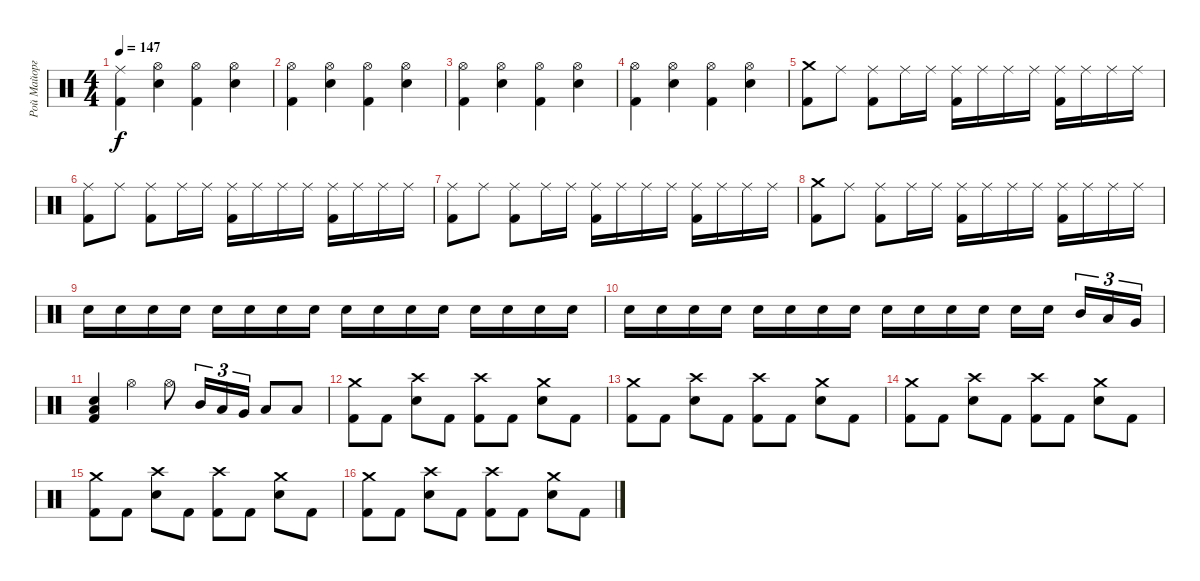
\track ("Рой Майорга" "Рой Майорг") {instrument percussion}
\staff {score}
\articulation defaults
\ts (4 4)
\tempo 147
\clef neutral
\ks c
("Ride (middle)" "Kick (hit) 2").4{dy f} ("Hi-Hat (open)" "Electric Snare (hit)").4 ("Hi-Hat (open)" "Kick (hit) 2").4 ("Hi-Hat (open)" "Electric Snare (hit)").4 |
("Hi-Hat (open)" "Kick (hit) 2").4 ("Hi-Hat (open)" "Electric Snare (hit)").4 ("Hi-Hat (open)" "Kick (hit) 2").4 ("Hi-Hat (open)" "Electric Snare (hit)").4 |
("Hi-Hat (open)" "Kick (hit) 2").4 ("Hi-Hat (open)" "Electric Snare (hit)").4 ("Hi-Hat (open)" "Kick (hit) 2").4 ("Hi-Hat (open)" "Electric Snare (hit)").4 |
("Hi-Hat (open)" "Kick (hit) 2").4 ("Hi-Hat (open)" "Electric Snare (hit)").4 ("Hi-Hat (open)" "Kick (hit) 2").4 ("Hi-Hat (open)" "Electric Snare (hit)").4 |
("Crash medium (hit)" "Kick (hit) 2").8 "Ride (middle)".8 ("Ride (middle)" "Kick (hit) 2").8 "Ride (middle)".16 "Ride (middle)".16 ("Ride (middle)" "Kick (hit) 2").16 "Ride (middle)".16 "Ride (middle)".16 "Ride (middle)".16 ("Ride (middle)" "Kick (hit) 2").16 "Ride (middle)".16 "Ride (middle)".16 "Ride (middle)".16 |
("Ride (middle)" "Kick (hit) 2").8 "Ride (middle)".8 ("Ride (middle)" "Kick (hit) 2").8 "Ride (middle)".16 "Ride (middle)".16 ("Ride (middle)" "Kick (hit) 2").16 "Ride (middle)".16 "Ride (middle)".16 "Ride (middle)".16 ("Ride (middle)" "Kick (hit) 2").16 "Ride (middle)".16 "Ride (middle)".16 "Ride (middle)".16 |
("Ride (middle)" "Kick (hit) 2").8 "Ride (middle)".8 ("Ride (middle)" "Kick (hit) 2").8 "Ride (middle)".16 "Ride (middle)".16 ("Ride (middle)" "Kick (hit) 2").16 "Ride (middle)".16 "Ride (middle)".16 "Ride (middle)".16 ("Ride (middle)" "Kick (hit) 2").16 "Ride (middle)".16 "Ride (middle)".16 "Ride (middle)".16 |
("Crash medium (hit)" "Kick (hit) 2").8 "Ride (middle)".8 ("Ride (middle)" "Kick (hit) 2").8 "Ride (middle)".16 "Ride (middle)".16 ("Ride (middle)" "Kick (hit) 2").16 "Ride (middle)".16 "Ride (middle)".16 "Ride (middle)".16 ("Ride (middle)" "Kick (hit) 2").16 "Ride (middle)".16 "Ride (middle)".16 "Ride (middle)".16 |
"Electric Snare (hit)".16 "Electric Snare (hit)".16 "Electric Snare (hit)".16 "Electric Snare (hit)".16 "Electric Snare (hit)".16 "Electric Snare (hit)".16 "Electric Snare (hit)".16 "Electric Snare (hit)".16 "Electric Snare (hit)".16 "Electric Snare (hit)".16 "Electric Snare (hit)".16 "Electric Snare (hit)".16 "Electric Snare (hit)".16 "Electric Snare (hit)".16 "Electric Snare (hit)".16 "Electric Snare (hit)".16 |
"Electric Snare (hit)".16 "Electric Snare (hit)".16 "Electric Snare (hit)".16 "Electric Snare (hit)".16 "Electric Snare (hit)".16 "Electric Snare (hit)".16 "Electric Snare (hit)".16 "Electric Snare (hit)".16 "Electric Snare (hit)".16 "Electric Snare (hit)".16 "Electric Snare (hit)".16 "Electric Snare (hit)".16 "Electric Snare (hit)".16 "Electric Snare (hit)".16{beam splitsecondary} "Mid Tom (hit)".16{tu (3 2)} "Low Tom (hit)".16{tu (3 2)} "Very Low Tom (hit)".16{tu (3 2)} |
("Low Floor Tom (hit)" "Electric Snare (hit)" "Kick (hit) 2").4 "Hi-Hat (open)".4 "Hi-Hat (open)".8 "Mid Tom (hit)".16{tu (3 2)} "Low Tom (hit)".16{tu (3 2)} "Very Low Tom (hit)".16{tu (3 2)} "Low Floor Tom (hit)".8 "Low Floor Tom (hit)".8 |
("Crash medium (hit)" "Kick (hit) 2").8 "Kick (hit) 2".8 ("Crash high (hit)" "Electric Snare (hit)").8 "Kick (hit) 2".8 ("Crash high (hit)" "Kick (hit) 2").8 "Kick (hit) 2".8 ("Crash medium (hit)" "Electric Snare (hit)").8 "Kick (hit) 2".8 |
("Crash medium (hit)" "Kick (hit) 2").8 "Kick (hit) 2".8 ("Crash high (hit)" "Electric Snare (hit)").8 "Kick (hit) 2".8 ("Crash high (hit)" "Kick (hit) 2").8 "Kick (hit) 2".8 ("Crash medium (hit)" "Electric Snare (hit)").8 "Kick (hit) 2".8 |
("Crash medium (hit)" "Kick (hit) 2").8 "Kick (hit) 2".8 ("Crash high (hit)" "Electric Snare (hit)").8 "Kick (hit) 2".8 ("Crash high (hit)" "Kick (hit) 2").8 "Kick (hit) 2".8 ("Crash medium (hit)" "Electric Snare (hit)").8 "Kick (hit) 2".8 |
("Crash medium (hit)" "Kick (hit) 2").8 "Kick (hit) 2".8 ("Crash high (hit)" "Electric Snare (hit)").8 "Kick (hit) 2".8 ("Crash high (hit)" "Kick (hit) 2").8 "Kick (hit) 2".8 ("Crash medium (hit)" "Electric Snare (hit)").8 "Kick (hit) 2".8 |
("Crash medium (hit)" "Kick (hit) 2").8 "Kick (hit) 2".8 ("Crash high (hit)" "Electric Snare (hit)").8 "Kick (hit) 2".8 ("Crash high (hit)" "Kick (hit) 2").8 "Kick (hit) 2".8 ("Crash medium (hit)" "Electric Snare (hit)").8 "Kick (hit) 2".8
